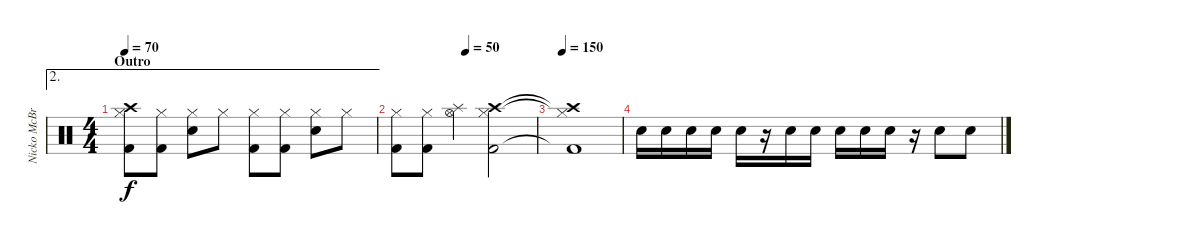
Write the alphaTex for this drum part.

\track ("Nicko McBrain" "Nicko McBr") {instrument percussion}
\staff {score}
\articulation defaults
\ae 2
\ts (4 4)
\section ("" "Outro")
\tempo 70
\clef neutral
\ks c
("Hi-Hat (closed)" "Crash high (hit)" "Kick (hit) 2").8{dy f} ("Hi-Hat (closed)" "Kick (hit) 2").8 ("Hi-Hat (closed)" "Snare (hit) 2").8 "Hi-Hat (closed)".8 ("Hi-Hat (closed)" "Kick (hit) 2").8 ("Hi-Hat (closed)" "Kick (hit) 2").8 ("Hi-Hat (closed)" "Snare (hit) 2").8 "Hi-Hat (closed)".8 |
\tempo (50 0.5)
("Hi-Hat (closed)" "Kick (hit) 2").8 ("Hi-Hat (closed)" "Kick (hit) 2").8 ("Hi-Hat (open)" "Splash (hit)").4 ("Hi-Hat (closed)" "Crash high (hit)" "Kick (hit) 2").2 |
\tempo 150
("Hi-Hat (closed)"{t} "Crash high (hit)"{t} "Kick (hit) 2"{t}).1 |
"Snare (hit) 2".16 "Snare (hit) 2".16 "Snare (hit) 2".16 "Snare (hit) 2".16 "Snare (hit) 2".16 r.16 "Snare (hit) 2".16 "Snare (hit) 2".16 "Snare (hit) 2".16 "Snare (hit) 2".16 "Snare (hit) 2".16 r.16 "Snare (hit) 2".8 "Snare (hit) 2".8
